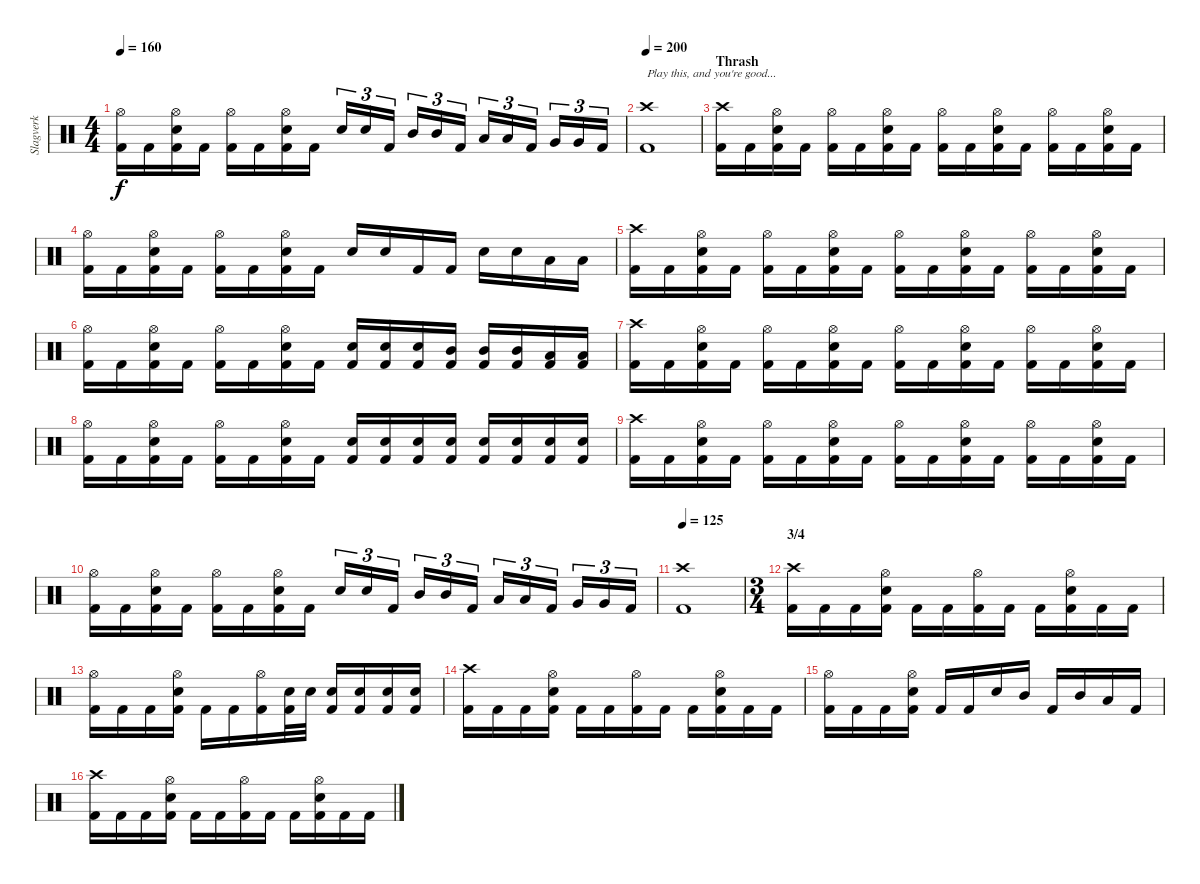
\track ("Slagverk" "Slagverk") {instrument percussion}
\staff {score}
\articulation defaults
\ts (4 4)
\tempo 160
\clef neutral
\ks c
("Hi-Hat (open)" "Kick (hit) 2").16{dy f} "Kick (hit) 2".16 ("Hi-Hat (open)" "Snare (hit) 2" "Kick (hit) 2").16 "Kick (hit) 2".16 ("Hi-Hat (open)" "Kick (hit) 2").16 "Kick (hit) 2".16 ("Hi-Hat (open)" "Snare (hit) 2" "Kick (hit) 2").16 "Kick (hit) 2".16 "Snare (hit) 2".16{tu (3 2)} "Snare (hit) 2".16{tu (3 2)} "Kick (hit) 2".16{tu (3 2)} "Mid Tom (hit)".16{tu (3 2)} "Mid Tom (hit)".16{tu (3 2)} "Kick (hit) 2".16{tu (3 2)} "Low Tom (hit)".16{tu (3 2)} "Low Tom (hit)".16{tu (3 2)} "Kick (hit) 2".16{tu (3 2)} "Very Low Tom (hit)".16{tu (3 2)} "Very Low Tom (hit)".16{tu (3 2)} "Kick (hit) 2".16{tu (3 2)} |
\tempo 200
("Crash high (hit)" "Kick (hit) 2").1{txt "Play this, and you're good..."} |
\section ("" "Thrash")
("Crash high (hit)" "Kick (hit) 2").16 "Kick (hit) 2".16 ("Hi-Hat (open)" "Snare (hit) 2" "Kick (hit) 2").16 "Kick (hit) 2".16 ("Hi-Hat (open)" "Kick (hit) 2").16 "Kick (hit) 2".16 ("Hi-Hat (open)" "Snare (hit) 2" "Kick (hit) 2").16 "Kick (hit) 2".16 ("Hi-Hat (open)" "Kick (hit) 2").16 "Kick (hit) 2".16 ("Hi-Hat (open)" "Snare (hit) 2" "Kick (hit) 2").16 "Kick (hit) 2".16 ("Hi-Hat (open)" "Kick (hit) 2").16 "Kick (hit) 2".16 ("Hi-Hat (open)" "Snare (hit) 2" "Kick (hit) 2").16 "Kick (hit) 2".16 |
("Hi-Hat (open)" "Kick (hit) 2").16 "Kick (hit) 2".16 ("Hi-Hat (open)" "Snare (hit) 2" "Kick (hit) 2").16 "Kick (hit) 2".16 ("Hi-Hat (open)" "Kick (hit) 2").16 "Kick (hit) 2".16 ("Hi-Hat (open)" "Snare (hit) 2" "Kick (hit) 2").16 "Kick (hit) 2".16 "Snare (hit) 2".16 "Snare (hit) 2".16 "Kick (hit) 2".16 "Kick (hit) 2".16 "Snare (hit) 2".16 "Snare (hit) 2".16 "Low Tom (hit)".16 "Low Tom (hit)".16 |
("Crash high (hit)" "Kick (hit) 2").16 "Kick (hit) 2".16 ("Hi-Hat (open)" "Snare (hit) 2" "Kick (hit) 2").16 "Kick (hit) 2".16 ("Hi-Hat (open)" "Kick (hit) 2").16 "Kick (hit) 2".16 ("Hi-Hat (open)" "Snare (hit) 2" "Kick (hit) 2").16 "Kick (hit) 2".16 ("Hi-Hat (open)" "Kick (hit) 2").16 "Kick (hit) 2".16 ("Hi-Hat (open)" "Snare (hit) 2" "Kick (hit) 2").16 "Kick (hit) 2".16 ("Hi-Hat (open)" "Kick (hit) 2").16 "Kick (hit) 2".16 ("Hi-Hat (open)" "Snare (hit) 2" "Kick (hit) 2").16 "Kick (hit) 2".16 |
("Hi-Hat (open)" "Kick (hit) 2").16 "Kick (hit) 2".16 ("Hi-Hat (open)" "Snare (hit) 2" "Kick (hit) 2").16 "Kick (hit) 2".16 ("Hi-Hat (open)" "Kick (hit) 2").16 "Kick (hit) 2".16 ("Hi-Hat (open)" "Snare (hit) 2" "Kick (hit) 2").16 "Kick (hit) 2".16 ("Snare (hit) 2" "Kick (hit) 2").16 ("Snare (hit) 2" "Kick (hit) 2").16 ("Snare (hit) 2" "Kick (hit) 2").16 ("Mid Tom (hit)" "Kick (hit) 2").16 ("Mid Tom (hit)" "Kick (hit) 2").16 ("Mid Tom (hit)" "Kick (hit) 2").16 ("Low Tom (hit)" "Kick (hit) 2").16 ("Low Tom (hit)" "Kick (hit) 2").16 |
("Crash high (hit)" "Kick (hit) 2").16 "Kick (hit) 2".16 ("Hi-Hat (open)" "Snare (hit) 2" "Kick (hit) 2").16 "Kick (hit) 2".16 ("Hi-Hat (open)" "Kick (hit) 2").16 "Kick (hit) 2".16 ("Hi-Hat (open)" "Snare (hit) 2" "Kick (hit) 2").16 "Kick (hit) 2".16 ("Hi-Hat (open)" "Kick (hit) 2").16 "Kick (hit) 2".16 ("Hi-Hat (open)" "Snare (hit) 2" "Kick (hit) 2").16 "Kick (hit) 2".16 ("Hi-Hat (open)" "Kick (hit) 2").16 "Kick (hit) 2".16 ("Hi-Hat (open)" "Snare (hit) 2" "Kick (hit) 2").16 "Kick (hit) 2".16 |
("Hi-Hat (open)" "Kick (hit) 2").16 "Kick (hit) 2".16 ("Hi-Hat (open)" "Snare (hit) 2" "Kick (hit) 2").16 "Kick (hit) 2".16 ("Hi-Hat (open)" "Kick (hit) 2").16 "Kick (hit) 2".16 ("Hi-Hat (open)" "Snare (hit) 2" "Kick (hit) 2").16 "Kick (hit) 2".16 ("Snare (hit) 2" "Kick (hit) 2").16 ("Snare (hit) 2" "Kick (hit) 2").16 ("Snare (hit) 2" "Kick (hit) 2").16 ("Snare (hit) 2" "Kick (hit) 2").16 ("Snare (hit) 2" "Kick (hit) 2").16 ("Snare (hit) 2" "Kick (hit) 2").16 ("Snare (hit) 2" "Kick (hit) 2").16 ("Snare (hit) 2" "Kick (hit) 2").16 |
("Crash high (hit)" "Kick (hit) 2").16 "Kick (hit) 2".16 ("Hi-Hat (open)" "Snare (hit) 2" "Kick (hit) 2").16 "Kick (hit) 2".16 ("Hi-Hat (open)" "Kick (hit) 2").16 "Kick (hit) 2".16 ("Hi-Hat (open)" "Snare (hit) 2" "Kick (hit) 2").16 "Kick (hit) 2".16 ("Hi-Hat (open)" "Kick (hit) 2").16 "Kick (hit) 2".16 ("Hi-Hat (open)" "Snare (hit) 2" "Kick (hit) 2").16 "Kick (hit) 2".16 ("Hi-Hat (open)" "Kick (hit) 2").16 "Kick (hit) 2".16 ("Hi-Hat (open)" "Snare (hit) 2" "Kick (hit) 2").16 "Kick (hit) 2".16 |
("Hi-Hat (open)" "Kick (hit) 2").16 "Kick (hit) 2".16 ("Hi-Hat (open)" "Snare (hit) 2" "Kick (hit) 2").16 "Kick (hit) 2".16 ("Hi-Hat (open)" "Kick (hit) 2").16 "Kick (hit) 2".16 ("Hi-Hat (open)" "Snare (hit) 2" "Kick (hit) 2").16 "Kick (hit) 2".16 "Snare (hit) 2".16{tu (3 2)} "Snare (hit) 2".16{tu (3 2)} "Kick (hit) 2".16{tu (3 2)} "Mid Tom (hit)".16{tu (3 2)} "Mid Tom (hit)".16{tu (3 2)} "Kick (hit) 2".16{tu (3 2)} "Low Tom (hit)".16{tu (3 2)} "Low Tom (hit)".16{tu (3 2)} "Kick (hit) 2".16{tu (3 2)} "Very Low Tom (hit)".16{tu (3 2)} "Very Low Tom (hit)".16{tu (3 2)} "Kick (hit) 2".16{tu (3 2)} |
\tempo 125
("Crash high (hit)" "Kick (hit) 2").1 |
\ts (3 4)
\section ("" "3/4")
("Crash high (hit)" "Kick (hit) 2").16 "Kick (hit) 2".16 "Kick (hit) 2".16 ("Hi-Hat (open)" "Snare (hit) 2" "Kick (hit) 2").16 "Kick (hit) 2".16 "Kick (hit) 2".16 ("Hi-Hat (open)" "Kick (hit) 2").16 "Kick (hit) 2".16 "Kick (hit) 2".16 ("Hi-Hat (open)" "Snare (hit) 2" "Kick (hit) 2").16 "Kick (hit) 2".16 "Kick (hit) 2".16 |
("Hi-Hat (open)" "Kick (hit) 2").16 "Kick (hit) 2".16 "Kick (hit) 2".16 ("Hi-Hat (open)" "Snare (hit) 2" "Kick (hit) 2").16 "Kick (hit) 2".16 "Kick (hit) 2".16 ("Hi-Hat (open)" "Kick (hit) 2").16 ("Snare (hit) 2" "Kick (hit) 2").32 "Snare (hit) 2".32 ("Snare (hit) 2" "Kick (hit) 2").16 ("Snare (hit) 2" "Kick (hit) 2").16 ("Snare (hit) 2" "Kick (hit) 2").16 ("Snare (hit) 2" "Kick (hit) 2").16 |
("Crash high (hit)" "Kick (hit) 2").16 "Kick (hit) 2".16 "Kick (hit) 2".16 ("Hi-Hat (open)" "Snare (hit) 2" "Kick (hit) 2").16 "Kick (hit) 2".16 "Kick (hit) 2".16 ("Hi-Hat (open)" "Kick (hit) 2").16 "Kick (hit) 2".16 "Kick (hit) 2".16 ("Hi-Hat (open)" "Snare (hit) 2" "Kick (hit) 2").16 "Kick (hit) 2".16 "Kick (hit) 2".16 |
("Hi-Hat (open)" "Kick (hit) 2").16 "Kick (hit) 2".16 "Kick (hit) 2".16 ("Hi-Hat (open)" "Snare (hit) 2" "Kick (hit) 2").16 "Kick (hit) 2".16 "Kick (hit) 2".16 "Snare (hit) 2".16 "Mid Tom (hit)".16 "Kick (hit) 2".16 "Mid Tom (hit)".16 "Low Tom (hit)".16 "Kick (hit) 2".16 |
("Crash high (hit)" "Kick (hit) 2").16 "Kick (hit) 2".16 "Kick (hit) 2".16 ("Hi-Hat (open)" "Snare (hit) 2" "Kick (hit) 2").16 "Kick (hit) 2".16 "Kick (hit) 2".16 ("Hi-Hat (open)" "Kick (hit) 2").16 "Kick (hit) 2".16 "Kick (hit) 2".16 ("Hi-Hat (open)" "Snare (hit) 2" "Kick (hit) 2").16 "Kick (hit) 2".16 "Kick (hit) 2".16
